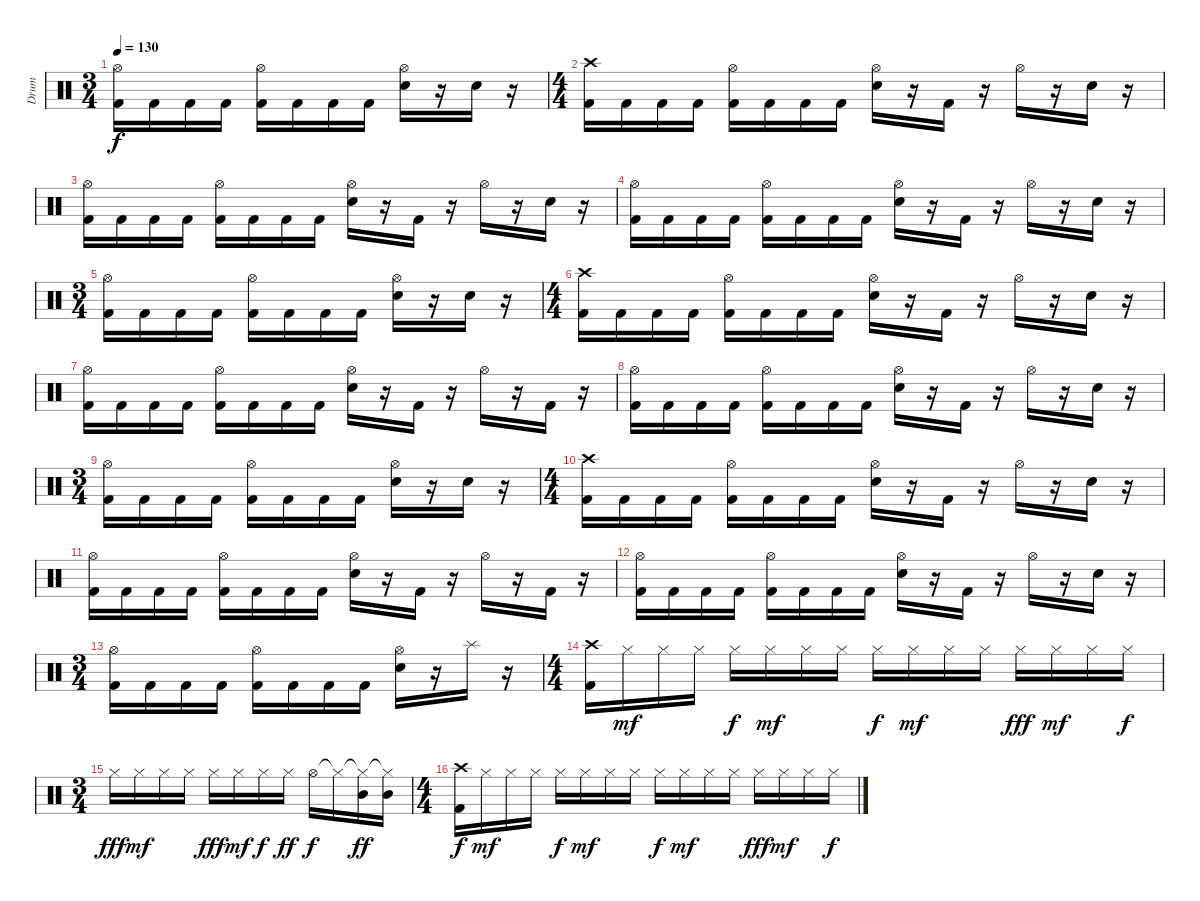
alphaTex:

\track ("Drum" "Drum") {instrument percussion}
\staff {score}
\articulation defaults
\ts (3 4)
\tempo 130
\clef neutral
\ks c
("Hi-Hat (open)" "Kick (hit) 2").16{dy f} "Kick (hit) 2".16 "Kick (hit) 2".16 "Kick (hit) 2".16 ("Hi-Hat (open)" "Kick (hit) 2").16 "Kick (hit) 2".16 "Kick (hit) 2".16 "Kick (hit) 2".16 ("Hi-Hat (open)" "Snare (hit) 2").16 r.16 "Snare (hit) 2".16 r.16 |
\ts (4 4)
("Crash high (hit)" "Kick (hit) 2").16 "Kick (hit) 2".16 "Kick (hit) 2".16 "Kick (hit) 2".16 ("Hi-Hat (open)" "Kick (hit) 2").16 "Kick (hit) 2".16 "Kick (hit) 2".16 "Kick (hit) 2".16 ("Hi-Hat (open)" "Snare (hit) 2").16 r.16 "Kick (hit) 2".16 r.16 "Hi-Hat (open)".16 r.16 "Snare (hit) 2".16 r.16 |
("Hi-Hat (open)" "Kick (hit) 2").16 "Kick (hit) 2".16 "Kick (hit) 2".16 "Kick (hit) 2".16 ("Hi-Hat (open)" "Kick (hit) 2").16 "Kick (hit) 2".16 "Kick (hit) 2".16 "Kick (hit) 2".16 ("Hi-Hat (open)" "Snare (hit) 2").16 r.16 "Kick (hit) 2".16 r.16 "Hi-Hat (open)".16 r.16 "Snare (hit) 2".16 r.16 |
("Hi-Hat (open)" "Kick (hit) 2").16 "Kick (hit) 2".16 "Kick (hit) 2".16 "Kick (hit) 2".16 ("Hi-Hat (open)" "Kick (hit) 2").16 "Kick (hit) 2".16 "Kick (hit) 2".16 "Kick (hit) 2".16 ("Hi-Hat (open)" "Snare (hit) 2").16 r.16 "Kick (hit) 2".16 r.16 "Hi-Hat (open)".16 r.16 "Snare (hit) 2".16 r.16 |
\ts (3 4)
("Hi-Hat (open)" "Kick (hit) 2").16 "Kick (hit) 2".16 "Kick (hit) 2".16 "Kick (hit) 2".16 ("Hi-Hat (open)" "Kick (hit) 2").16 "Kick (hit) 2".16 "Kick (hit) 2".16 "Kick (hit) 2".16 ("Hi-Hat (open)" "Snare (hit) 2").16 r.16 "Snare (hit) 2".16 r.16 |
\ts (4 4)
("Crash high (hit)" "Kick (hit) 2").16 "Kick (hit) 2".16 "Kick (hit) 2".16 "Kick (hit) 2".16 ("Hi-Hat (open)" "Kick (hit) 2").16 "Kick (hit) 2".16 "Kick (hit) 2".16 "Kick (hit) 2".16 ("Hi-Hat (open)" "Snare (hit) 2").16 r.16 "Kick (hit) 2".16 r.16 "Hi-Hat (open)".16 r.16 "Snare (hit) 2".16 r.16 |
("Hi-Hat (open)" "Kick (hit) 2").16 "Kick (hit) 2".16 "Kick (hit) 2".16 "Kick (hit) 2".16 ("Hi-Hat (open)" "Kick (hit) 2").16 "Kick (hit) 2".16 "Kick (hit) 2".16 "Kick (hit) 2".16 ("Hi-Hat (open)" "Snare (hit) 2").16 r.16 "Kick (hit) 2".16 r.16 "Hi-Hat (open)".16 r.16 "Kick (hit) 2".16 r.16 |
("Hi-Hat (open)" "Kick (hit) 2").16 "Kick (hit) 2".16 "Kick (hit) 2".16 "Kick (hit) 2".16 ("Hi-Hat (open)" "Kick (hit) 2").16 "Kick (hit) 2".16 "Kick (hit) 2".16 "Kick (hit) 2".16 ("Hi-Hat (open)" "Snare (hit) 2").16 r.16 "Kick (hit) 2".16 r.16 "Hi-Hat (open)".16 r.16 "Snare (hit) 2".16 r.16 |
\ts (3 4)
("Hi-Hat (open)" "Kick (hit) 2").16 "Kick (hit) 2".16 "Kick (hit) 2".16 "Kick (hit) 2".16 ("Hi-Hat (open)" "Kick (hit) 2").16 "Kick (hit) 2".16 "Kick (hit) 2".16 "Kick (hit) 2".16 ("Hi-Hat (open)" "Snare (hit) 2").16 r.16 "Snare (hit) 2".16 r.16 |
\ts (4 4)
("Crash high (hit)" "Kick (hit) 2").16 "Kick (hit) 2".16 "Kick (hit) 2".16 "Kick (hit) 2".16 ("Hi-Hat (open)" "Kick (hit) 2").16 "Kick (hit) 2".16 "Kick (hit) 2".16 "Kick (hit) 2".16 ("Hi-Hat (open)" "Snare (hit) 2").16 r.16 "Kick (hit) 2".16 r.16 "Hi-Hat (open)".16 r.16 "Snare (hit) 2".16 r.16 |
("Hi-Hat (open)" "Kick (hit) 2").16 "Kick (hit) 2".16 "Kick (hit) 2".16 "Kick (hit) 2".16 ("Hi-Hat (open)" "Kick (hit) 2").16 "Kick (hit) 2".16 "Kick (hit) 2".16 "Kick (hit) 2".16 ("Hi-Hat (open)" "Snare (hit) 2").16 r.16 "Kick (hit) 2".16 r.16 "Hi-Hat (open)".16 r.16 "Kick (hit) 2".16 r.16 |
("Hi-Hat (open)" "Kick (hit) 2").16 "Kick (hit) 2".16 "Kick (hit) 2".16 "Kick (hit) 2".16 ("Hi-Hat (open)" "Kick (hit) 2").16 "Kick (hit) 2".16 "Kick (hit) 2".16 "Kick (hit) 2".16 ("Hi-Hat (open)" "Snare (hit) 2").16 r.16 "Kick (hit) 2".16 r.16 "Hi-Hat (open)".16 r.16 "Snare (hit) 2".16 r.16 |
\ts (3 4)
("Hi-Hat (open)" "Kick (hit) 2").16 "Kick (hit) 2".16 "Kick (hit) 2".16 "Kick (hit) 2".16 ("Hi-Hat (open)" "Kick (hit) 2").16 "Kick (hit) 2".16 "Kick (hit) 2".16 "Kick (hit) 2".16 ("Hi-Hat (open)" "Snare (hit) 2").16 r.16 "Splash (hit)".16 r.16 |
\ts (4 4)
("Crash high (hit)" "Kick (hit) 2").16 "Hi-Hat (closed)".16{dy mf} "Hi-Hat (closed)".16 "Hi-Hat (closed)".16 "Hi-Hat (closed)".16{dy f} "Hi-Hat (closed)".16{dy mf} "Hi-Hat (closed)".16 "Hi-Hat (closed)".16 "Hi-Hat (closed)".16{dy f} "Hi-Hat (closed)".16{dy mf} "Hi-Hat (closed)".16 "Hi-Hat (closed)".16 "Hi-Hat (closed)".16{dy fff} "Hi-Hat (closed)".16{dy mf} "Hi-Hat (closed)".16 "Hi-Hat (closed)".16{dy f} |
\ts (3 4)
"Hi-Hat (closed)".16{dy fff} "Hi-Hat (closed)".16{dy mf} "Hi-Hat (closed)".16 "Hi-Hat (closed)".16 "Hi-Hat (closed)".16{dy fff} "Hi-Hat (closed)".16{dy mf} "Hi-Hat (closed)".16{dy f} "Hi-Hat (closed)".16{dy ff} "Hi-Hat (open)".16{dy f} "Hi-Hat (closed)"{t}.16 ("Hi-Hat (closed)"{t} "Mid Tom (hit)").16{dy ff} ("Hi-Hat (closed)"{t} "Mid Tom (hit)").16 |
\ts (4 4)
("Crash high (hit)" "Kick (hit) 2").16{dy f} "Hi-Hat (closed)".16{dy mf} "Hi-Hat (closed)".16 "Hi-Hat (closed)".16 "Hi-Hat (closed)".16{dy f} "Hi-Hat (closed)".16{dy mf} "Hi-Hat (closed)".16 "Hi-Hat (closed)".16 "Hi-Hat (closed)".16{dy f} "Hi-Hat (closed)".16{dy mf} "Hi-Hat (closed)".16 "Hi-Hat (closed)".16 "Hi-Hat (closed)".16{dy fff} "Hi-Hat (closed)".16{dy mf} "Hi-Hat (closed)".16 "Hi-Hat (closed)".16{dy f}
